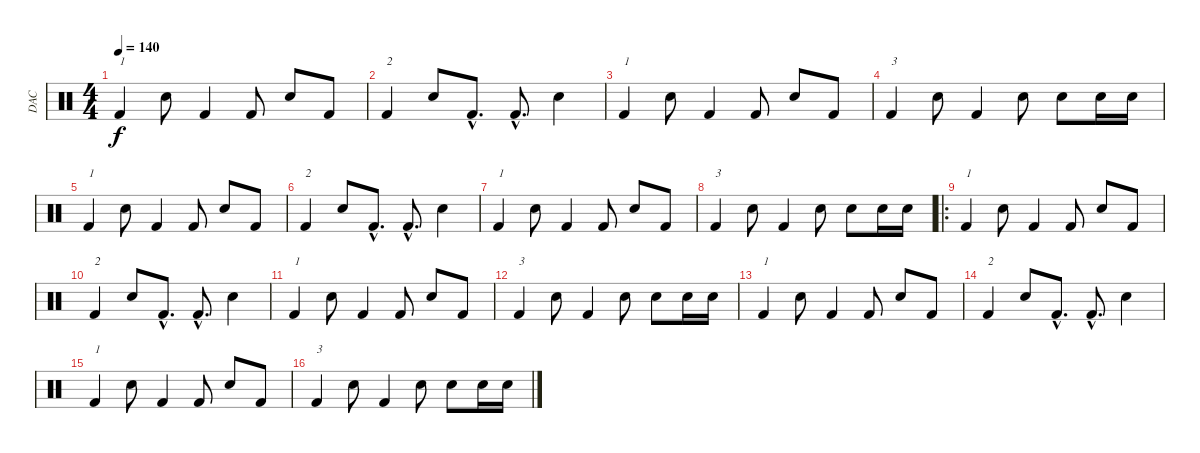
\track ("DAC" "DAC") {instrument percussion}
\staff {score}
\articulation defaults
\ts (4 4)
\tempo 140
\clef neutral
\ks c "Kick (hit) 2".4{txt "1" dy f} "Snare (hit) 2".8 "Kick (hit) 2".4 "Kick (hit) 2".8 "Snare (hit) 2".8 "Kick (hit) 2".8
|
"Kick (hit) 2".4{txt "2"} "Snare (hit) 2".8 "Kick (hit) 2"{hac}.8{d} "Kick (hit) 2"{hac}.8{d} "Snare (hit) 2".4 |
"Kick (hit) 2".4{txt "1"} "Snare (hit) 2".8 "Kick (hit) 2".4 "Kick (hit) 2".8 "Snare (hit) 2".8 "Kick (hit) 2".8 |
"Kick (hit) 2".4{txt "3"} "Snare (hit) 2".8 "Kick (hit) 2".4 "Snare (hit) 2".8 "Snare (hit) 2".8 "Snare (hit) 2".16 "Snare (hit) 2".16 |
"Kick (hit) 2".4{txt "1"} "Snare (hit) 2".8 "Kick (hit) 2".4 "Kick (hit) 2".8 "Snare (hit) 2".8 "Kick (hit) 2".8 |
"Kick (hit) 2".4{txt "2"} "Snare (hit) 2".8 "Kick (hit) 2"{hac}.8{d} "Kick (hit) 2"{hac}.8{d} "Snare (hit) 2".4 |
"Kick (hit) 2".4{txt "1"} "Snare (hit) 2".8 "Kick (hit) 2".4 "Kick (hit) 2".8 "Snare (hit) 2".8 "Kick (hit) 2".8 |
"Kick (hit) 2".4{txt "3"} "Snare (hit) 2".8 "Kick (hit) 2".4 "Snare (hit) 2".8 "Snare (hit) 2".8 "Snare (hit) 2".16 "Snare (hit) 2".16 |
\ro "Kick (hit) 2".4{txt "1"} "Snare (hit) 2".8 "Kick (hit) 2".4 "Kick (hit) 2".8 "Snare (hit) 2".8 "Kick (hit) 2".8
|
"Kick (hit) 2".4{txt "2"} "Snare (hit) 2".8 "Kick (hit) 2"{hac}.8{d} "Kick (hit) 2"{hac}.8{d} "Snare (hit) 2".4 |
"Kick (hit) 2".4{txt "1"} "Snare (hit) 2".8 "Kick (hit) 2".4 "Kick (hit) 2".8 "Snare (hit) 2".8 "Kick (hit) 2".8 |
"Kick (hit) 2".4{txt "3"} "Snare (hit) 2".8 "Kick (hit) 2".4 "Snare (hit) 2".8 "Snare (hit) 2".8 "Snare (hit) 2".16 "Snare (hit) 2".16 |
"Kick (hit) 2".4{txt "1"} "Snare (hit) 2".8 "Kick (hit) 2".4 "Kick (hit) 2".8 "Snare (hit) 2".8 "Kick (hit) 2".8 |
"Kick (hit) 2".4{txt "2"} "Snare (hit) 2".8 "Kick (hit) 2"{hac}.8{d} "Kick (hit) 2"{hac}.8{d} "Snare (hit) 2".4 |
"Kick (hit) 2".4{txt "1"} "Snare (hit) 2".8 "Kick (hit) 2".4 "Kick (hit) 2".8 "Snare (hit) 2".8 "Kick (hit) 2".8 |
"Kick (hit) 2".4{txt "3"} "Snare (hit) 2".8 "Kick (hit) 2".4 "Snare (hit) 2".8 "Snare (hit) 2".8 "Snare (hit) 2".16 "Snare (hit) 2".16
